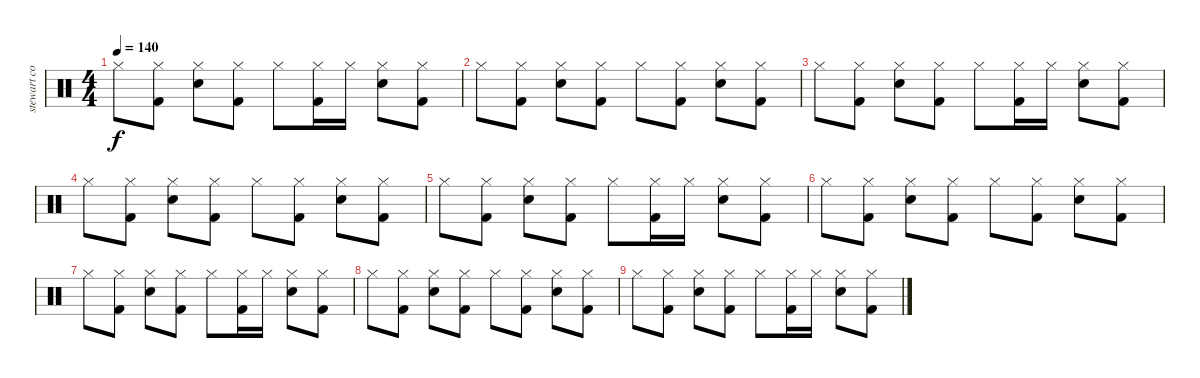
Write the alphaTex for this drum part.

\track ("stewart copeland" "stewart co") {instrument percussion}
\staff {score}
\articulation defaults
\ts (4 4)
\tempo 140
\clef neutral
\ks c "Hi-Hat (closed)".8{dy f}
("Hi-Hat (closed)" "Kick (hit) 2").8 ("Hi-Hat (closed)" "Snare (hit) 2").8 ("Hi-Hat (closed)" "Kick (hit) 2").8 "Hi-Hat (closed)".8 ("Hi-Hat (closed)" "Kick (hit) 2").16 "Hi-Hat (closed)".16 ("Hi-Hat (closed)" "Snare (hit) 2").8 ("Hi-Hat (closed)" "Kick (hit) 2").8 |
"Hi-Hat (closed)".8 ("Hi-Hat (closed)" "Kick (hit) 2").8 ("Hi-Hat (closed)" "Snare (hit) 2").8 ("Hi-Hat (closed)" "Kick (hit) 2").8 "Hi-Hat (closed)".8 ("Hi-Hat (closed)" "Kick (hit) 2").8 ("Hi-Hat (closed)" "Snare (hit) 2").8 ("Hi-Hat (closed)" "Kick (hit) 2").8 |
"Hi-Hat (closed)".8 ("Hi-Hat (closed)" "Kick (hit) 2").8 ("Hi-Hat (closed)" "Snare (hit) 2").8 ("Hi-Hat (closed)" "Kick (hit) 2").8 "Hi-Hat (closed)".8 ("Hi-Hat (closed)" "Kick (hit) 2").16 "Hi-Hat (closed)".16 ("Hi-Hat (closed)" "Snare (hit) 2").8 ("Hi-Hat (closed)" "Kick (hit) 2").8 |
"Hi-Hat (closed)".8 ("Hi-Hat (closed)" "Kick (hit) 2").8 ("Hi-Hat (closed)" "Snare (hit) 2").8 ("Hi-Hat (closed)" "Kick (hit) 2").8 "Hi-Hat (closed)".8 ("Hi-Hat (closed)" "Kick (hit) 2").8 ("Hi-Hat (closed)" "Snare (hit) 2").8 ("Hi-Hat (closed)" "Kick (hit) 2").8 |
"Hi-Hat (closed)".8 ("Hi-Hat (closed)" "Kick (hit) 2").8 ("Hi-Hat (closed)" "Snare (hit) 2").8 ("Hi-Hat (closed)" "Kick (hit) 2").8 "Hi-Hat (closed)".8 ("Hi-Hat (closed)" "Kick (hit) 2").16 "Hi-Hat (closed)".16 ("Hi-Hat (closed)" "Snare (hit) 2").8 ("Hi-Hat (closed)" "Kick (hit) 2").8 |
"Hi-Hat (closed)".8 ("Hi-Hat (closed)" "Kick (hit) 2").8 ("Hi-Hat (closed)" "Snare (hit) 2").8 ("Hi-Hat (closed)" "Kick (hit) 2").8 "Hi-Hat (closed)".8 ("Hi-Hat (closed)" "Kick (hit) 2").8 ("Hi-Hat (closed)" "Snare (hit) 2").8 ("Hi-Hat (closed)" "Kick (hit) 2").8 |
"Hi-Hat (closed)".8 ("Hi-Hat (closed)" "Kick (hit) 2").8 ("Hi-Hat (closed)" "Snare (hit) 2").8 ("Hi-Hat (closed)" "Kick (hit) 2").8 "Hi-Hat (closed)".8 ("Hi-Hat (closed)" "Kick (hit) 2").16 "Hi-Hat (closed)".16 ("Hi-Hat (closed)" "Snare (hit) 2").8 ("Hi-Hat (closed)" "Kick (hit) 2").8 |
"Hi-Hat (closed)".8 ("Hi-Hat (closed)" "Kick (hit) 2").8 ("Hi-Hat (closed)" "Snare (hit) 2").8 ("Hi-Hat (closed)" "Kick (hit) 2").8 "Hi-Hat (closed)".8 ("Hi-Hat (closed)" "Kick (hit) 2").8 ("Hi-Hat (closed)" "Snare (hit) 2").8 ("Hi-Hat (closed)" "Kick (hit) 2").8 |
"Hi-Hat (closed)".8 ("Hi-Hat (closed)" "Kick (hit) 2").8 ("Hi-Hat (closed)" "Snare (hit) 2").8 ("Hi-Hat (closed)" "Kick (hit) 2").8 "Hi-Hat (closed)".8 ("Hi-Hat (closed)" "Kick (hit) 2").16 "Hi-Hat (closed)".16 ("Hi-Hat (closed)" "Snare (hit) 2").8 ("Hi-Hat (closed)" "Kick (hit) 2").8
